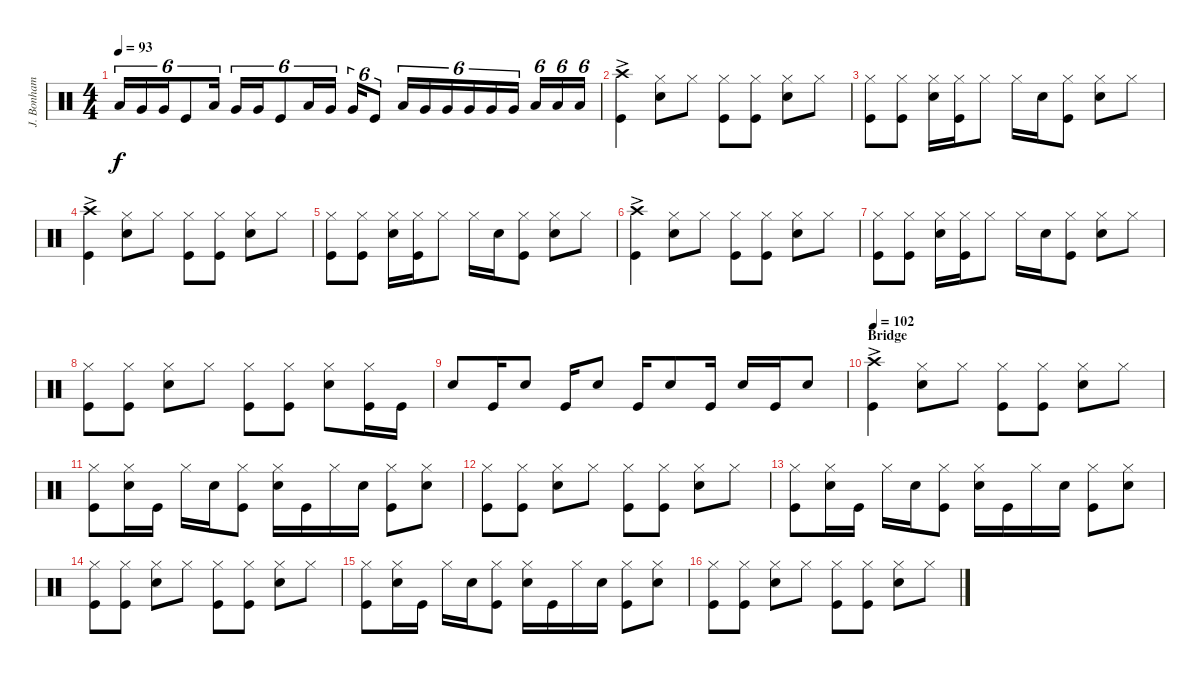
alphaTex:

\track ("J. Bonham" "J. Bonham") {instrument percussion}
\staff {score}
\articulation defaults
\ts (4 4)
\tempo 93
\clef neutral
\ks c "Low Tom (hit)".16{tu (6 4) dy f} "Very Low Tom (hit)".16{tu (6 4)} "Very Low Tom (hit)".16{tu (6 4)} "Kick (hit)".8{tu (6 4)} "Low Tom (hit)".16{tu (6 4)} "Very Low Tom (hit)".16{tu (6 4)} "Very Low Tom (hit)".16{tu (6 4)} "Kick (hit)".8{tu (6 4)} "Low Tom (hit)".16{tu (6 4)} "Very Low Tom (hit)".16{tu (6 4)} "Very Low Tom (hit)".16{tu (6 4)} "Kick (hit)".8{tu (6 4)} "Low Tom (hit)".16{tu (6 4)} "Very Low Tom (hit)".16{tu (6 4)} "Very Low Tom (hit)".16{tu (6 4)} "Very Low Tom (hit)".16{tu (6 4)} "Very Low Tom (hit)".16{tu (6 4)} "Very Low Tom (hit)".16{tu (6 4) beam splitsecondary} "Low Tom (hit)".16{tu (6 4)} "Low Tom (hit)".16{tu (6 4)} "Low Tom (hit)".16{tu (6 4)}
|
("Crash high (hit)"{ac} "Kick (hit)").4 ("Hi-Hat (closed)" "Snare (hit) 2").8 "Hi-Hat (closed)".8 ("Hi-Hat (closed)" "Kick (hit)").8 ("Hi-Hat (closed)" "Kick (hit)").8 ("Hi-Hat (closed)" "Snare (hit) 2").8 "Hi-Hat (closed)".8 |
("Hi-Hat (closed)" "Kick (hit)").8 ("Hi-Hat (closed)" "Kick (hit)").8 ("Hi-Hat (closed)" "Snare (hit) 2").16 ("Hi-Hat (closed)" "Kick (hit)").16 "Hi-Hat (closed)".8 "Hi-Hat (closed)".16 "Snare (hit) 2".16 ("Hi-Hat (closed)" "Kick (hit)").8 ("Hi-Hat (closed)" "Snare (hit) 2").8 "Hi-Hat (closed)".8 |
("Crash high (hit)"{ac} "Kick (hit)").4 ("Hi-Hat (closed)" "Snare (hit) 2").8 "Hi-Hat (closed)".8 ("Hi-Hat (closed)" "Kick (hit)").8 ("Hi-Hat (closed)" "Kick (hit)").8 ("Hi-Hat (closed)" "Snare (hit) 2").8 "Hi-Hat (closed)".8 |
("Hi-Hat (closed)" "Kick (hit)").8 ("Hi-Hat (closed)" "Kick (hit)").8 ("Hi-Hat (closed)" "Snare (hit) 2").16 ("Hi-Hat (closed)" "Kick (hit)").16 "Hi-Hat (closed)".8 "Hi-Hat (closed)".16 "Snare (hit) 2".16 ("Hi-Hat (closed)" "Kick (hit)").8 ("Hi-Hat (closed)" "Snare (hit) 2").8 "Hi-Hat (closed)".8 |
("Crash high (hit)"{ac} "Kick (hit)").4 ("Hi-Hat (closed)" "Snare (hit) 2").8 "Hi-Hat (closed)".8 ("Hi-Hat (closed)" "Kick (hit)").8 ("Hi-Hat (closed)" "Kick (hit)").8 ("Hi-Hat (closed)" "Snare (hit) 2").8 "Hi-Hat (closed)".8 |
("Hi-Hat (closed)" "Kick (hit)").8 ("Hi-Hat (closed)" "Kick (hit)").8 ("Hi-Hat (closed)" "Snare (hit) 2").16 ("Hi-Hat (closed)" "Kick (hit)").16 "Hi-Hat (closed)".8 "Hi-Hat (closed)".16 "Snare (hit) 2".16 ("Hi-Hat (closed)" "Kick (hit)").8 ("Hi-Hat (closed)" "Snare (hit) 2").8 "Hi-Hat (closed)".8 |
("Hi-Hat (closed)" "Kick (hit)").8 ("Hi-Hat (closed)" "Kick (hit)").8 ("Hi-Hat (closed)" "Snare (hit) 2").8 "Hi-Hat (closed)".8 ("Hi-Hat (closed)" "Kick (hit)").8 ("Hi-Hat (closed)" "Kick (hit)").8 ("Hi-Hat (closed)" "Snare (hit) 2").8 ("Hi-Hat (closed)" "Kick (hit)").16 "Kick (hit)".16 |
"Snare (hit) 2".8 "Kick (hit)".16 "Snare (hit) 2".8 "Kick (hit)".16 "Snare (hit) 2".8 "Kick (hit)".16 "Snare (hit) 2".8 "Kick (hit)".16 "Snare (hit) 2".16 "Kick (hit)".16 "Snare (hit) 2".8 |
\section ("" "Bridge")
\tempo 102
("Crash high (hit)"{ac} "Kick (hit)").4 ("Hi-Hat (closed)" "Snare (hit) 2").8 "Hi-Hat (closed)".8 ("Hi-Hat (closed)" "Kick (hit)").8 ("Hi-Hat (closed)" "Kick (hit)").8 ("Hi-Hat (closed)" "Snare (hit) 2").8 "Hi-Hat (closed)".8 |
("Hi-Hat (closed)" "Kick (hit)").8 ("Hi-Hat (closed)" "Snare (hit) 2").16 "Kick (hit)".16 "Hi-Hat (closed)".16 "Snare (hit) 2".16 ("Hi-Hat (closed)" "Kick (hit)").8 ("Hi-Hat (closed)" "Snare (hit) 2").16 "Kick (hit)".16 "Hi-Hat (closed)".16 "Snare (hit) 2".16 ("Hi-Hat (closed)" "Kick (hit)").8 ("Hi-Hat (closed)" "Snare (hit) 2").8 |
("Hi-Hat (closed)" "Kick (hit)").8 ("Hi-Hat (closed)" "Kick (hit)").8 ("Hi-Hat (closed)" "Snare (hit) 2").8 "Hi-Hat (closed)".8 ("Hi-Hat (closed)" "Kick (hit)").8 ("Hi-Hat (closed)" "Kick (hit)").8 ("Hi-Hat (closed)" "Snare (hit) 2").8 "Hi-Hat (closed)".8 |
("Hi-Hat (closed)" "Kick (hit)").8 ("Hi-Hat (closed)" "Snare (hit) 2").16 "Kick (hit)".16 "Hi-Hat (closed)".16 "Snare (hit) 2".16 ("Hi-Hat (closed)" "Kick (hit)").8 ("Hi-Hat (closed)" "Snare (hit) 2").16 "Kick (hit)".16 "Hi-Hat (closed)".16 "Snare (hit) 2".16 ("Hi-Hat (closed)" "Kick (hit)").8 ("Hi-Hat (closed)" "Snare (hit) 2").8 |
("Hi-Hat (closed)" "Kick (hit)").8 ("Hi-Hat (closed)" "Kick (hit)").8 ("Hi-Hat (closed)" "Snare (hit) 2").8 "Hi-Hat (closed)".8 ("Hi-Hat (closed)" "Kick (hit)").8 ("Hi-Hat (closed)" "Kick (hit)").8 ("Hi-Hat (closed)" "Snare (hit) 2").8 "Hi-Hat (closed)".8 |
("Hi-Hat (closed)" "Kick (hit)").8 ("Hi-Hat (closed)" "Snare (hit) 2").16 "Kick (hit)".16 "Hi-Hat (closed)".16 "Snare (hit) 2".16 ("Hi-Hat (closed)" "Kick (hit)").8 ("Hi-Hat (closed)" "Snare (hit) 2").16 "Kick (hit)".16 "Hi-Hat (closed)".16 "Snare (hit) 2".16 ("Hi-Hat (closed)" "Kick (hit)").8 ("Hi-Hat (closed)" "Snare (hit) 2").8 |
("Hi-Hat (closed)" "Kick (hit)").8 ("Hi-Hat (closed)" "Kick (hit)").8 ("Hi-Hat (closed)" "Snare (hit) 2").8 "Hi-Hat (closed)".8 ("Hi-Hat (closed)" "Kick (hit)").8 ("Hi-Hat (closed)" "Kick (hit)").8 ("Hi-Hat (closed)" "Snare (hit) 2").8 "Hi-Hat (closed)".8
